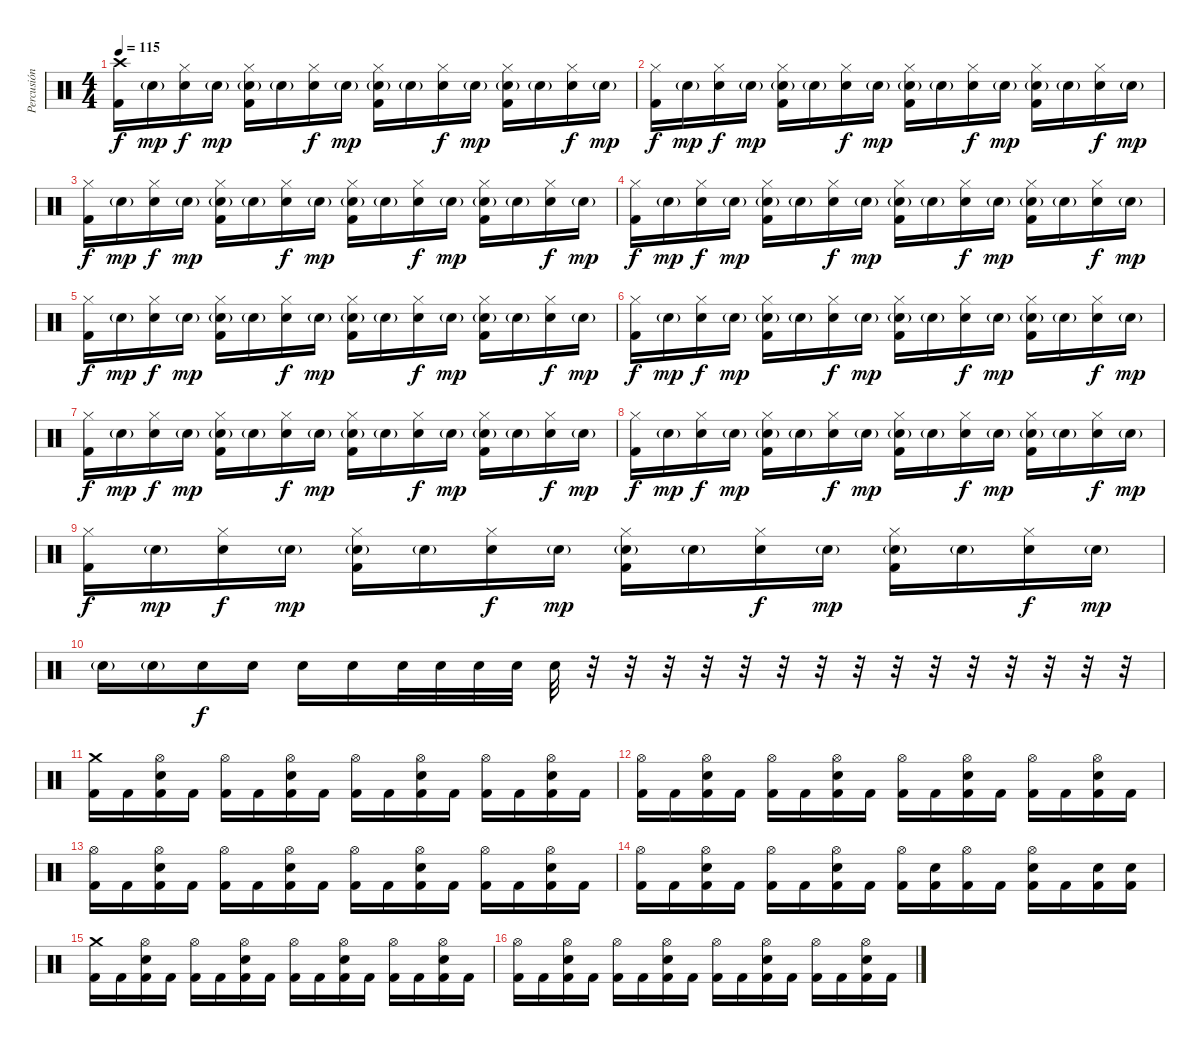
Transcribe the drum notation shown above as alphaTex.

\track ("Percusión" "Percusión") {instrument percussion}
\staff {score}
\articulation defaults
\ts (4 4)
\tempo 115
\clef neutral
\ks c
("Crash high (hit)" "Kick (hit) 2").16{dy f} "Snare (hit) 2"{g}.16{dy mp} ("Hi-Hat (closed)" "Snare (hit) 2").16{dy f} "Snare (hit) 2"{g}.16{dy mp} ("Hi-Hat (closed)" "Snare (hit) 2"{g} "Kick (hit) 2").16 "Snare (hit) 2"{g}.16 ("Hi-Hat (closed)" "Snare (hit) 2").16{dy f} "Snare (hit) 2"{g}.16{dy mp} ("Hi-Hat (closed)" "Snare (hit) 2"{g} "Kick (hit) 2").16 "Snare (hit) 2"{g}.16 ("Hi-Hat (closed)" "Snare (hit) 2").16{dy f} "Snare (hit) 2"{g}.16{dy mp} ("Hi-Hat (closed)" "Snare (hit) 2"{g} "Kick (hit) 2").16 "Snare (hit) 2"{g}.16 ("Hi-Hat (closed)" "Snare (hit) 2").16{dy f} "Snare (hit) 2"{g}.16{dy mp} |
("Hi-Hat (closed)" "Kick (hit) 2").16{dy f} "Snare (hit) 2"{g}.16{dy mp} ("Hi-Hat (closed)" "Snare (hit) 2").16{dy f} "Snare (hit) 2"{g}.16{dy mp} ("Hi-Hat (closed)" "Snare (hit) 2"{g} "Kick (hit) 2").16 "Snare (hit) 2"{g}.16 ("Hi-Hat (closed)" "Snare (hit) 2").16{dy f} "Snare (hit) 2"{g}.16{dy mp} ("Hi-Hat (closed)" "Snare (hit) 2"{g} "Kick (hit) 2").16 "Snare (hit) 2"{g}.16 ("Hi-Hat (closed)" "Snare (hit) 2").16{dy f} "Snare (hit) 2"{g}.16{dy mp} ("Hi-Hat (closed)" "Snare (hit) 2"{g} "Kick (hit) 2").16 "Snare (hit) 2"{g}.16 ("Hi-Hat (closed)" "Snare (hit) 2").16{dy f} "Snare (hit) 2"{g}.16{dy mp} |
("Hi-Hat (closed)" "Kick (hit) 2").16{dy f} "Snare (hit) 2"{g}.16{dy mp} ("Hi-Hat (closed)" "Snare (hit) 2").16{dy f} "Snare (hit) 2"{g}.16{dy mp} ("Hi-Hat (closed)" "Snare (hit) 2"{g} "Kick (hit) 2").16 "Snare (hit) 2"{g}.16 ("Hi-Hat (closed)" "Snare (hit) 2").16{dy f} "Snare (hit) 2"{g}.16{dy mp} ("Hi-Hat (closed)" "Snare (hit) 2"{g} "Kick (hit) 2").16 "Snare (hit) 2"{g}.16 ("Hi-Hat (closed)" "Snare (hit) 2").16{dy f} "Snare (hit) 2"{g}.16{dy mp} ("Hi-Hat (closed)" "Snare (hit) 2"{g} "Kick (hit) 2").16 "Snare (hit) 2"{g}.16 ("Hi-Hat (closed)" "Snare (hit) 2").16{dy f} "Snare (hit) 2"{g}.16{dy mp} |
("Hi-Hat (closed)" "Kick (hit) 2").16{dy f} "Snare (hit) 2"{g}.16{dy mp} ("Hi-Hat (closed)" "Snare (hit) 2").16{dy f} "Snare (hit) 2"{g}.16{dy mp} ("Hi-Hat (closed)" "Snare (hit) 2"{g} "Kick (hit) 2").16 "Snare (hit) 2"{g}.16 ("Hi-Hat (closed)" "Snare (hit) 2").16{dy f} "Snare (hit) 2"{g}.16{dy mp} ("Hi-Hat (closed)" "Snare (hit) 2"{g} "Kick (hit) 2").16 "Snare (hit) 2"{g}.16 ("Hi-Hat (closed)" "Snare (hit) 2").16{dy f} "Snare (hit) 2"{g}.16{dy mp} ("Hi-Hat (closed)" "Snare (hit) 2"{g} "Kick (hit) 2").16 "Snare (hit) 2"{g}.16 ("Hi-Hat (closed)" "Snare (hit) 2").16{dy f} "Snare (hit) 2"{g}.16{dy mp} |
("Hi-Hat (closed)" "Kick (hit) 2").16{dy f} "Snare (hit) 2"{g}.16{dy mp} ("Hi-Hat (closed)" "Snare (hit) 2").16{dy f} "Snare (hit) 2"{g}.16{dy mp} ("Hi-Hat (closed)" "Snare (hit) 2"{g} "Kick (hit) 2").16 "Snare (hit) 2"{g}.16 ("Hi-Hat (closed)" "Snare (hit) 2").16{dy f} "Snare (hit) 2"{g}.16{dy mp} ("Hi-Hat (closed)" "Snare (hit) 2"{g} "Kick (hit) 2").16 "Snare (hit) 2"{g}.16 ("Hi-Hat (closed)" "Snare (hit) 2").16{dy f} "Snare (hit) 2"{g}.16{dy mp} ("Hi-Hat (closed)" "Snare (hit) 2"{g} "Kick (hit) 2").16 "Snare (hit) 2"{g}.16 ("Hi-Hat (closed)" "Snare (hit) 2").16{dy f} "Snare (hit) 2"{g}.16{dy mp} |
("Hi-Hat (closed)" "Kick (hit) 2").16{dy f} "Snare (hit) 2"{g}.16{dy mp} ("Hi-Hat (closed)" "Snare (hit) 2").16{dy f} "Snare (hit) 2"{g}.16{dy mp} ("Hi-Hat (closed)" "Snare (hit) 2"{g} "Kick (hit) 2").16 "Snare (hit) 2"{g}.16 ("Hi-Hat (closed)" "Snare (hit) 2").16{dy f} "Snare (hit) 2"{g}.16{dy mp} ("Hi-Hat (closed)" "Snare (hit) 2"{g} "Kick (hit) 2").16 "Snare (hit) 2"{g}.16 ("Hi-Hat (closed)" "Snare (hit) 2").16{dy f} "Snare (hit) 2"{g}.16{dy mp} ("Hi-Hat (closed)" "Snare (hit) 2"{g} "Kick (hit) 2").16 "Snare (hit) 2"{g}.16 ("Hi-Hat (closed)" "Snare (hit) 2").16{dy f} "Snare (hit) 2"{g}.16{dy mp} |
("Hi-Hat (closed)" "Kick (hit) 2").16{dy f} "Snare (hit) 2"{g}.16{dy mp} ("Hi-Hat (closed)" "Snare (hit) 2").16{dy f} "Snare (hit) 2"{g}.16{dy mp} ("Hi-Hat (closed)" "Snare (hit) 2"{g} "Kick (hit) 2").16 "Snare (hit) 2"{g}.16 ("Hi-Hat (closed)" "Snare (hit) 2").16{dy f} "Snare (hit) 2"{g}.16{dy mp} ("Hi-Hat (closed)" "Snare (hit) 2"{g} "Kick (hit) 2").16 "Snare (hit) 2"{g}.16 ("Hi-Hat (closed)" "Snare (hit) 2").16{dy f} "Snare (hit) 2"{g}.16{dy mp} ("Hi-Hat (closed)" "Snare (hit) 2"{g} "Kick (hit) 2").16 "Snare (hit) 2"{g}.16 ("Hi-Hat (closed)" "Snare (hit) 2").16{dy f} "Snare (hit) 2"{g}.16{dy mp} |
("Hi-Hat (closed)" "Kick (hit) 2").16{dy f} "Snare (hit) 2"{g}.16{dy mp} ("Hi-Hat (closed)" "Snare (hit) 2").16{dy f} "Snare (hit) 2"{g}.16{dy mp} ("Hi-Hat (closed)" "Snare (hit) 2"{g} "Kick (hit) 2").16 "Snare (hit) 2"{g}.16 ("Hi-Hat (closed)" "Snare (hit) 2").16{dy f} "Snare (hit) 2"{g}.16{dy mp} ("Hi-Hat (closed)" "Snare (hit) 2"{g} "Kick (hit) 2").16 "Snare (hit) 2"{g}.16 ("Hi-Hat (closed)" "Snare (hit) 2").16{dy f} "Snare (hit) 2"{g}.16{dy mp} ("Hi-Hat (closed)" "Snare (hit) 2"{g} "Kick (hit) 2").16 "Snare (hit) 2"{g}.16 ("Hi-Hat (closed)" "Snare (hit) 2").16{dy f} "Snare (hit) 2"{g}.16{dy mp} |
("Hi-Hat (closed)" "Kick (hit) 2").16{dy f} "Snare (hit) 2"{g}.16{dy mp} ("Hi-Hat (closed)" "Snare (hit) 2").16{dy f} "Snare (hit) 2"{g}.16{dy mp} ("Hi-Hat (closed)" "Snare (hit) 2"{g} "Kick (hit) 2").16 "Snare (hit) 2"{g}.16 ("Hi-Hat (closed)" "Snare (hit) 2").16{dy f} "Snare (hit) 2"{g}.16{dy mp} ("Hi-Hat (closed)" "Snare (hit) 2"{g} "Kick (hit) 2").16 "Snare (hit) 2"{g}.16 ("Hi-Hat (closed)" "Snare (hit) 2").16{dy f} "Snare (hit) 2"{g}.16{dy mp} ("Hi-Hat (closed)" "Snare (hit) 2"{g} "Kick (hit) 2").16 "Snare (hit) 2"{g}.16 ("Hi-Hat (closed)" "Snare (hit) 2").16{dy f} "Snare (hit) 2"{g}.16{dy mp} |
"Snare (hit) 2"{g}.16 "Snare (hit) 2"{g}.16 "Snare (hit) 2".16{dy f} "Snare (hit) 2".16 "Snare (hit) 2".16 "Snare (hit) 2".16 "Snare (hit) 2".32 "Snare (hit) 2".32 "Snare (hit) 2".32 "Snare (hit) 2".32 "Snare (hit) 2".32 r.32 r.32 r.32 r.32 r.32 r.32 r.32 r.32 r.32 r.32 r.32 r.32 r.32 r.32 r.32 |
("Crash medium (hit)" "Kick (hit) 2").16 "Kick (hit) 2".16 ("Hi-Hat (open)" "Snare (hit) 2" "Kick (hit) 2").16 "Kick (hit) 2".16 ("Hi-Hat (open)" "Kick (hit) 2").16 "Kick (hit) 2".16 ("Hi-Hat (open)" "Snare (hit) 2" "Kick (hit) 2").16 "Kick (hit) 2".16 ("Hi-Hat (open)" "Kick (hit) 2").16 "Kick (hit) 2".16 ("Hi-Hat (open)" "Snare (hit) 2" "Kick (hit) 2").16 "Kick (hit) 2".16 ("Hi-Hat (open)" "Kick (hit) 2").16 "Kick (hit) 2".16 ("Hi-Hat (open)" "Snare (hit) 2" "Kick (hit) 2").16 "Kick (hit) 2".16 |
("Hi-Hat (open)" "Kick (hit) 2").16 "Kick (hit) 2".16 ("Hi-Hat (open)" "Snare (hit) 2" "Kick (hit) 2").16 "Kick (hit) 2".16 ("Hi-Hat (open)" "Kick (hit) 2").16 "Kick (hit) 2".16 ("Hi-Hat (open)" "Snare (hit) 2" "Kick (hit) 2").16 "Kick (hit) 2".16 ("Hi-Hat (open)" "Kick (hit) 2").16 "Kick (hit) 2".16 ("Hi-Hat (open)" "Snare (hit) 2" "Kick (hit) 2").16 "Kick (hit) 2".16 ("Hi-Hat (open)" "Kick (hit) 2").16 "Kick (hit) 2".16 ("Hi-Hat (open)" "Snare (hit) 2" "Kick (hit) 2").16 "Kick (hit) 2".16 |
("Hi-Hat (open)" "Kick (hit) 2").16 "Kick (hit) 2".16 ("Hi-Hat (open)" "Snare (hit) 2" "Kick (hit) 2").16 "Kick (hit) 2".16 ("Hi-Hat (open)" "Kick (hit) 2").16 "Kick (hit) 2".16 ("Hi-Hat (open)" "Snare (hit) 2" "Kick (hit) 2").16 "Kick (hit) 2".16 ("Hi-Hat (open)" "Kick (hit) 2").16 "Kick (hit) 2".16 ("Hi-Hat (open)" "Snare (hit) 2" "Kick (hit) 2").16 "Kick (hit) 2".16 ("Hi-Hat (open)" "Kick (hit) 2").16 "Kick (hit) 2".16 ("Hi-Hat (open)" "Snare (hit) 2" "Kick (hit) 2").16 "Kick (hit) 2".16 |
("Hi-Hat (open)" "Kick (hit) 2").16 "Kick (hit) 2".16 ("Hi-Hat (open)" "Snare (hit) 2" "Kick (hit) 2").16 "Kick (hit) 2".16 ("Hi-Hat (open)" "Kick (hit) 2").16 "Kick (hit) 2".16 ("Hi-Hat (open)" "Snare (hit) 2" "Kick (hit) 2").16 "Kick (hit) 2".16 ("Hi-Hat (open)" "Kick (hit) 2").16 ("Snare (hit) 2" "Kick (hit) 2").16 ("Hi-Hat (open)" "Kick (hit) 2").16 "Kick (hit) 2".16 ("Hi-Hat (open)" "Snare (hit) 2" "Kick (hit) 2").16 "Kick (hit) 2".16 ("Snare (hit) 2" "Kick (hit) 2").16 ("Snare (hit) 2" "Kick (hit) 2").16 |
("Crash medium (hit)" "Kick (hit) 2").16 "Kick (hit) 2".16 ("Hi-Hat (open)" "Snare (hit) 2" "Kick (hit) 2").16 "Kick (hit) 2".16 ("Hi-Hat (open)" "Kick (hit) 2").16 "Kick (hit) 2".16 ("Hi-Hat (open)" "Snare (hit) 2" "Kick (hit) 2").16 "Kick (hit) 2".16 ("Hi-Hat (open)" "Kick (hit) 2").16 "Kick (hit) 2".16 ("Hi-Hat (open)" "Snare (hit) 2" "Kick (hit) 2").16 "Kick (hit) 2".16 ("Hi-Hat (open)" "Kick (hit) 2").16 "Kick (hit) 2".16 ("Hi-Hat (open)" "Snare (hit) 2" "Kick (hit) 2").16 "Kick (hit) 2".16 |
("Hi-Hat (open)" "Kick (hit) 2").16 "Kick (hit) 2".16 ("Hi-Hat (open)" "Snare (hit) 2" "Kick (hit) 2").16 "Kick (hit) 2".16 ("Hi-Hat (open)" "Kick (hit) 2").16 "Kick (hit) 2".16 ("Hi-Hat (open)" "Snare (hit) 2" "Kick (hit) 2").16 "Kick (hit) 2".16 ("Hi-Hat (open)" "Kick (hit) 2").16 "Kick (hit) 2".16 ("Hi-Hat (open)" "Snare (hit) 2" "Kick (hit) 2").16 "Kick (hit) 2".16 ("Hi-Hat (open)" "Kick (hit) 2").16 "Kick (hit) 2".16 ("Hi-Hat (open)" "Snare (hit) 2" "Kick (hit) 2").16 "Kick (hit) 2".16
